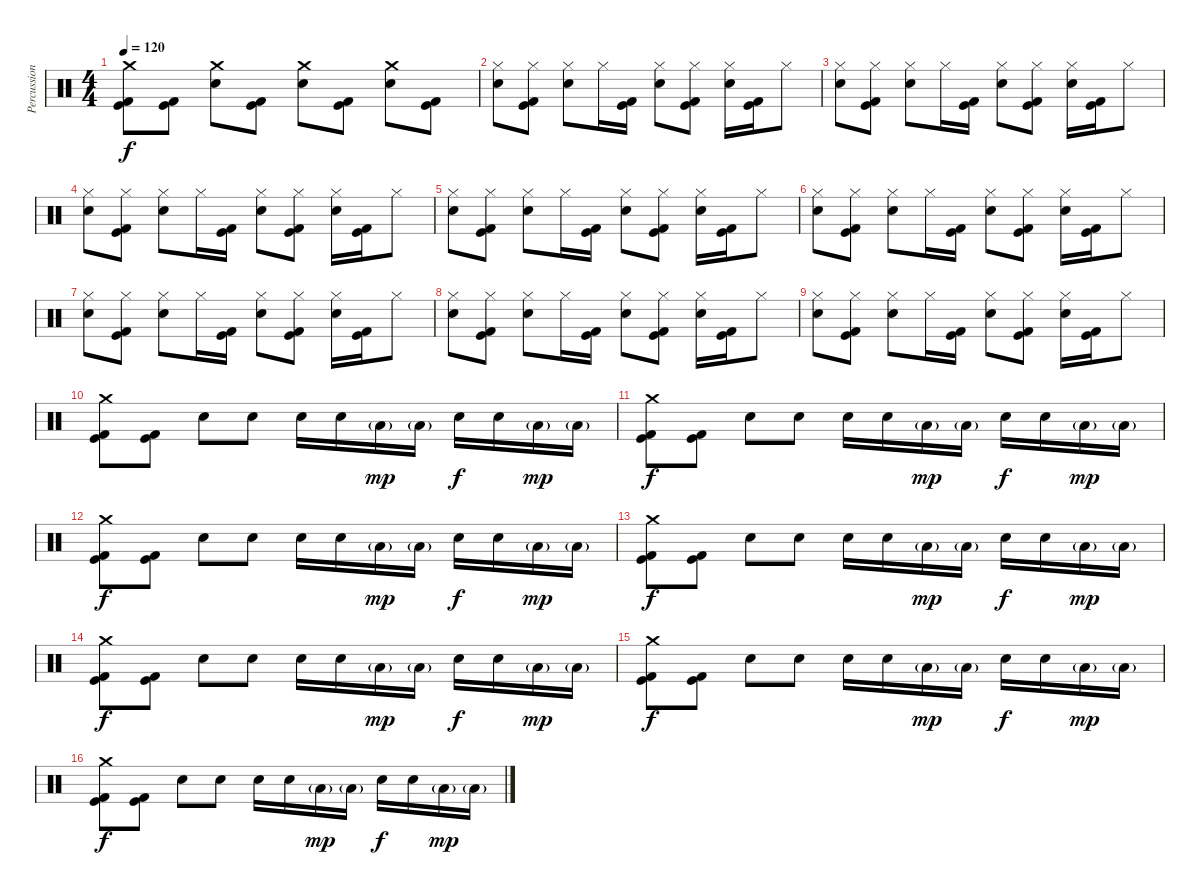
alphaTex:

\track ("Percussion" "Percussion") {instrument percussion}
\staff {score}
\articulation defaults
\ts (4 4)
\tempo 120
\clef neutral
\ks c
("Crash medium (hit)" "Kick (hit)" "Kick (hit) 2").8{dy f} ("Kick (hit)" "Kick (hit) 2").8 ("Crash medium (hit)" "Electric Snare (hit)").8 ("Kick (hit)" "Kick (hit) 2").8 ("Crash medium (hit)" "Electric Snare (hit)").8 ("Kick (hit)" "Kick (hit) 2").8 ("Crash medium (hit)" "Electric Snare (hit)").8 ("Kick (hit)" "Kick (hit) 2").8 |
("Hi-Hat (closed)" "Electric Snare (hit)").8 ("Hi-Hat (closed)" "Kick (hit)" "Kick (hit) 2").8 ("Hi-Hat (closed)" "Electric Snare (hit)").8 "Hi-Hat (closed)".16 ("Kick (hit)" "Kick (hit) 2").16 ("Hi-Hat (closed)" "Electric Snare (hit)").8 ("Hi-Hat (closed)" "Kick (hit)" "Kick (hit) 2").8 ("Hi-Hat (closed)" "Electric Snare (hit)").16 ("Kick (hit)" "Kick (hit) 2").16 "Hi-Hat (closed)".8 |
("Hi-Hat (closed)" "Electric Snare (hit)").8 ("Hi-Hat (closed)" "Kick (hit)" "Kick (hit) 2").8 ("Hi-Hat (closed)" "Electric Snare (hit)").8 "Hi-Hat (closed)".16 ("Kick (hit)" "Kick (hit) 2").16 ("Hi-Hat (closed)" "Electric Snare (hit)").8 ("Hi-Hat (closed)" "Kick (hit)" "Kick (hit) 2").8 ("Hi-Hat (closed)" "Electric Snare (hit)").16 ("Kick (hit)" "Kick (hit) 2").16 "Hi-Hat (closed)".8 |
("Hi-Hat (closed)" "Electric Snare (hit)").8 ("Hi-Hat (closed)" "Kick (hit)" "Kick (hit) 2").8 ("Hi-Hat (closed)" "Electric Snare (hit)").8 "Hi-Hat (closed)".16 ("Kick (hit)" "Kick (hit) 2").16 ("Hi-Hat (closed)" "Electric Snare (hit)").8 ("Hi-Hat (closed)" "Kick (hit)" "Kick (hit) 2").8 ("Hi-Hat (closed)" "Electric Snare (hit)").16 ("Kick (hit)" "Kick (hit) 2").16 "Hi-Hat (closed)".8 |
("Hi-Hat (closed)" "Electric Snare (hit)").8 ("Hi-Hat (closed)" "Kick (hit)" "Kick (hit) 2").8 ("Hi-Hat (closed)" "Electric Snare (hit)").8 "Hi-Hat (closed)".16 ("Kick (hit)" "Kick (hit) 2").16 ("Hi-Hat (closed)" "Electric Snare (hit)").8 ("Hi-Hat (closed)" "Kick (hit)" "Kick (hit) 2").8 ("Hi-Hat (closed)" "Electric Snare (hit)").16 ("Kick (hit)" "Kick (hit) 2").16 "Hi-Hat (closed)".8 |
("Hi-Hat (closed)" "Electric Snare (hit)").8 ("Hi-Hat (closed)" "Kick (hit)" "Kick (hit) 2").8 ("Hi-Hat (closed)" "Electric Snare (hit)").8 "Hi-Hat (closed)".16 ("Kick (hit)" "Kick (hit) 2").16 ("Hi-Hat (closed)" "Electric Snare (hit)").8 ("Hi-Hat (closed)" "Kick (hit)" "Kick (hit) 2").8 ("Hi-Hat (closed)" "Electric Snare (hit)").16 ("Kick (hit)" "Kick (hit) 2").16 "Hi-Hat (closed)".8 |
("Hi-Hat (closed)" "Electric Snare (hit)").8 ("Hi-Hat (closed)" "Kick (hit)" "Kick (hit) 2").8 ("Hi-Hat (closed)" "Electric Snare (hit)").8 "Hi-Hat (closed)".16 ("Kick (hit)" "Kick (hit) 2").16 ("Hi-Hat (closed)" "Electric Snare (hit)").8 ("Hi-Hat (closed)" "Kick (hit)" "Kick (hit) 2").8 ("Hi-Hat (closed)" "Electric Snare (hit)").16 ("Kick (hit)" "Kick (hit) 2").16 "Hi-Hat (closed)".8 |
("Hi-Hat (closed)" "Electric Snare (hit)").8 ("Hi-Hat (closed)" "Kick (hit)" "Kick (hit) 2").8 ("Hi-Hat (closed)" "Electric Snare (hit)").8 "Hi-Hat (closed)".16 ("Kick (hit)" "Kick (hit) 2").16 ("Hi-Hat (closed)" "Electric Snare (hit)").8 ("Hi-Hat (closed)" "Kick (hit)" "Kick (hit) 2").8 ("Hi-Hat (closed)" "Electric Snare (hit)").16 ("Kick (hit)" "Kick (hit) 2").16 "Hi-Hat (closed)".8 |
("Hi-Hat (closed)" "Electric Snare (hit)").8 ("Hi-Hat (closed)" "Kick (hit)" "Kick (hit) 2").8 ("Hi-Hat (closed)" "Electric Snare (hit)").8 "Hi-Hat (closed)".16 ("Kick (hit)" "Kick (hit) 2").16 ("Hi-Hat (closed)" "Electric Snare (hit)").8 ("Hi-Hat (closed)" "Kick (hit)" "Kick (hit) 2").8 ("Hi-Hat (closed)" "Electric Snare (hit)").16 ("Kick (hit)" "Kick (hit) 2").16 "Hi-Hat (closed)".8 |
("Crash medium (hit)" "Kick (hit)" "Kick (hit) 2").8 ("Kick (hit)" "Kick (hit) 2").8 "Electric Snare (hit)".8 "Electric Snare (hit)".8 "Electric Snare (hit)".16 "Electric Snare (hit)".16 "Low Tom (hit)"{g}.16{dy mp} "Low Tom (hit)"{g}.16 "Electric Snare (hit)".16{dy f} "Electric Snare (hit)".16 "Low Tom (hit)"{g}.16{dy mp} "Low Tom (hit)"{g}.16 |
("Crash medium (hit)" "Kick (hit)" "Kick (hit) 2").8{dy f} ("Kick (hit)" "Kick (hit) 2").8 "Electric Snare (hit)".8 "Electric Snare (hit)".8 "Electric Snare (hit)".16 "Electric Snare (hit)".16 "Low Tom (hit)"{g}.16{dy mp} "Low Tom (hit)"{g}.16 "Electric Snare (hit)".16{dy f} "Electric Snare (hit)".16 "Low Tom (hit)"{g}.16{dy mp} "Low Tom (hit)"{g}.16 |
("Crash medium (hit)" "Kick (hit)" "Kick (hit) 2").8{dy f} ("Kick (hit)" "Kick (hit) 2").8 "Electric Snare (hit)".8 "Electric Snare (hit)".8 "Electric Snare (hit)".16 "Electric Snare (hit)".16 "Low Tom (hit)"{g}.16{dy mp} "Low Tom (hit)"{g}.16 "Electric Snare (hit)".16{dy f} "Electric Snare (hit)".16 "Low Tom (hit)"{g}.16{dy mp} "Low Tom (hit)"{g}.16 |
("Crash medium (hit)" "Kick (hit)" "Kick (hit) 2").8{dy f} ("Kick (hit)" "Kick (hit) 2").8 "Electric Snare (hit)".8 "Electric Snare (hit)".8 "Electric Snare (hit)".16 "Electric Snare (hit)".16 "Low Tom (hit)"{g}.16{dy mp} "Low Tom (hit)"{g}.16 "Electric Snare (hit)".16{dy f} "Electric Snare (hit)".16 "Low Tom (hit)"{g}.16{dy mp} "Low Tom (hit)"{g}.16 |
("Crash medium (hit)" "Kick (hit)" "Kick (hit) 2").8{dy f} ("Kick (hit)" "Kick (hit) 2").8 "Electric Snare (hit)".8 "Electric Snare (hit)".8 "Electric Snare (hit)".16 "Electric Snare (hit)".16 "Low Tom (hit)"{g}.16{dy mp} "Low Tom (hit)"{g}.16 "Electric Snare (hit)".16{dy f} "Electric Snare (hit)".16 "Low Tom (hit)"{g}.16{dy mp} "Low Tom (hit)"{g}.16 |
("Crash medium (hit)" "Kick (hit)" "Kick (hit) 2").8{dy f} ("Kick (hit)" "Kick (hit) 2").8 "Electric Snare (hit)".8 "Electric Snare (hit)".8 "Electric Snare (hit)".16 "Electric Snare (hit)".16 "Low Tom (hit)"{g}.16{dy mp} "Low Tom (hit)"{g}.16 "Electric Snare (hit)".16{dy f} "Electric Snare (hit)".16 "Low Tom (hit)"{g}.16{dy mp} "Low Tom (hit)"{g}.16 |
("Crash medium (hit)" "Kick (hit)" "Kick (hit) 2").8{dy f} ("Kick (hit)" "Kick (hit) 2").8 "Electric Snare (hit)".8 "Electric Snare (hit)".8 "Electric Snare (hit)".16 "Electric Snare (hit)".16 "Low Tom (hit)"{g}.16{dy mp} "Low Tom (hit)"{g}.16 "Electric Snare (hit)".16{dy f} "Electric Snare (hit)".16 "Low Tom (hit)"{g}.16{dy mp} "Low Tom (hit)"{g}.16
